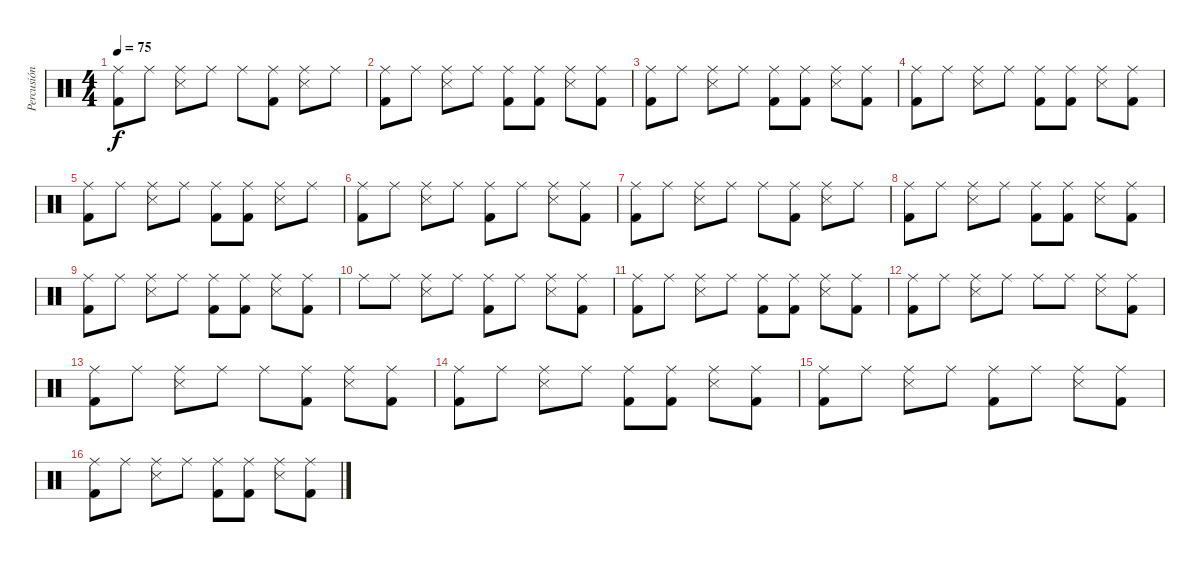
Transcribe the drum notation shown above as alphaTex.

\track ("Percusión" "Percusión") {instrument percussion}
\staff {score}
\articulation defaults
\ts (4 4)
\tempo 75
\clef neutral
\ks c
("Kick (hit) 2" "Ride (middle)").8{dy f} "Ride (middle)".8 ("Ride (middle)" "Snare (side stick) 3").8 "Ride (middle)".8 "Ride (middle)".8 ("Kick (hit) 2" "Ride (middle)").8 ("Ride (middle)" "Snare (side stick) 3").8 "Ride (middle)".8 |
("Kick (hit) 2" "Ride (middle)").8 "Ride (middle)".8 ("Ride (middle)" "Snare (side stick) 3").8 "Ride (middle)".8 ("Kick (hit) 2" "Ride (middle)").8 ("Kick (hit) 2" "Ride (middle)").8 ("Ride (middle)" "Snare (side stick) 3").8 ("Kick (hit) 2" "Ride (middle)").8 |
("Kick (hit) 2" "Ride (middle)").8 "Ride (middle)".8 ("Ride (middle)" "Snare (side stick) 3").8 "Ride (middle)".8 ("Kick (hit) 2" "Ride (middle)").8 ("Kick (hit) 2" "Ride (middle)").8 ("Ride (middle)" "Snare (side stick) 3").8 ("Kick (hit) 2" "Ride (middle)").8 |
("Kick (hit) 2" "Ride (middle)").8 "Ride (middle)".8 ("Ride (middle)" "Snare (side stick) 3").8 "Ride (middle)".8 ("Kick (hit) 2" "Ride (middle)").8 ("Kick (hit) 2" "Ride (middle)").8 ("Ride (middle)" "Snare (side stick) 3").8 ("Kick (hit) 2" "Ride (middle)").8 |
("Kick (hit) 2" "Ride (middle)").8 "Ride (middle)".8 ("Ride (middle)" "Snare (side stick) 3").8 "Ride (middle)".8 ("Kick (hit) 2" "Ride (middle)").8 ("Kick (hit) 2" "Ride (middle)").8 ("Ride (middle)" "Snare (side stick) 3").8 "Ride (middle)".8 |
("Kick (hit) 2" "Ride (middle)").8 "Ride (middle)".8 ("Ride (middle)" "Snare (side stick) 3").8 "Ride (middle)".8 ("Kick (hit) 2" "Ride (middle)").8 "Ride (middle)".8 ("Ride (middle)" "Snare (side stick) 3").8 ("Kick (hit) 2" "Ride (middle)").8 |
("Kick (hit) 2" "Ride (middle)").8 "Ride (middle)".8 ("Ride (middle)" "Snare (side stick) 3").8 "Ride (middle)".8 "Ride (middle)".8 ("Kick (hit) 2" "Ride (middle)").8 ("Ride (middle)" "Snare (side stick) 3").8 "Ride (middle)".8 |
("Kick (hit) 2" "Ride (middle)").8 "Ride (middle)".8 ("Ride (middle)" "Snare (side stick) 3").8 "Ride (middle)".8 ("Kick (hit) 2" "Ride (middle)").8 ("Kick (hit) 2" "Ride (middle)").8 ("Ride (middle)" "Snare (side stick) 3").8 ("Kick (hit) 2" "Ride (middle)").8 |
("Kick (hit) 2" "Ride (middle)").8 "Ride (middle)".8 ("Ride (middle)" "Snare (side stick) 3").8 "Ride (middle)".8 ("Kick (hit) 2" "Ride (middle)").8 ("Kick (hit) 2" "Ride (middle)").8 ("Ride (middle)" "Snare (side stick) 3").8 ("Kick (hit) 2" "Ride (middle)").8 |
"Ride (middle)".8 "Ride (middle)".8 ("Ride (middle)" "Snare (side stick) 3").8 "Ride (middle)".8 ("Kick (hit) 2" "Ride (middle)").8 "Ride (middle)".8 ("Ride (middle)" "Snare (side stick) 3").8 ("Kick (hit) 2" "Ride (middle)").8 |
("Kick (hit) 2" "Ride (middle)").8 "Ride (middle)".8 ("Ride (middle)" "Snare (side stick) 3").8 "Ride (middle)".8 ("Kick (hit) 2" "Ride (middle)").8 ("Kick (hit) 2" "Ride (middle)").8 ("Ride (middle)" "Snare (side stick) 3").8 ("Kick (hit) 2" "Ride (middle)").8 |
("Kick (hit) 2" "Ride (middle)").8 "Ride (middle)".8 ("Ride (middle)" "Snare (side stick) 3").8 "Ride (middle)".8 "Ride (middle)".8 "Ride (middle)".8 ("Ride (middle)" "Snare (side stick) 3").8 ("Kick (hit) 2" "Ride (middle)").8 |
("Kick (hit) 2" "Ride (middle)").8 "Ride (middle)".8 ("Ride (middle)" "Snare (side stick) 3").8 "Ride (middle)".8 "Ride (middle)".8 ("Kick (hit) 2" "Ride (middle)").8 ("Ride (middle)" "Snare (side stick) 3").8 ("Kick (hit) 2" "Ride (middle)").8 |
("Kick (hit) 2" "Ride (middle)").8 "Ride (middle)".8 ("Ride (middle)" "Snare (side stick) 3").8 "Ride (middle)".8 ("Kick (hit) 2" "Ride (middle)").8 ("Kick (hit) 2" "Ride (middle)").8 ("Ride (middle)" "Snare (side stick) 3").8 ("Kick (hit) 2" "Ride (middle)").8 |
("Kick (hit) 2" "Ride (middle)").8 "Ride (middle)".8 ("Ride (middle)" "Snare (side stick) 3").8 "Ride (middle)".8 ("Kick (hit) 2" "Ride (middle)").8 "Ride (middle)".8 ("Ride (middle)" "Snare (side stick) 3").8 ("Kick (hit) 2" "Ride (middle)").8 |
("Kick (hit) 2" "Ride (middle)").8 "Ride (middle)".8 ("Ride (middle)" "Snare (side stick) 3").8 "Ride (middle)".8 ("Kick (hit) 2" "Ride (middle)").8 ("Kick (hit) 2" "Ride (middle)").8 ("Ride (middle)" "Snare (side stick) 3").8 ("Kick (hit) 2" "Ride (middle)").8
